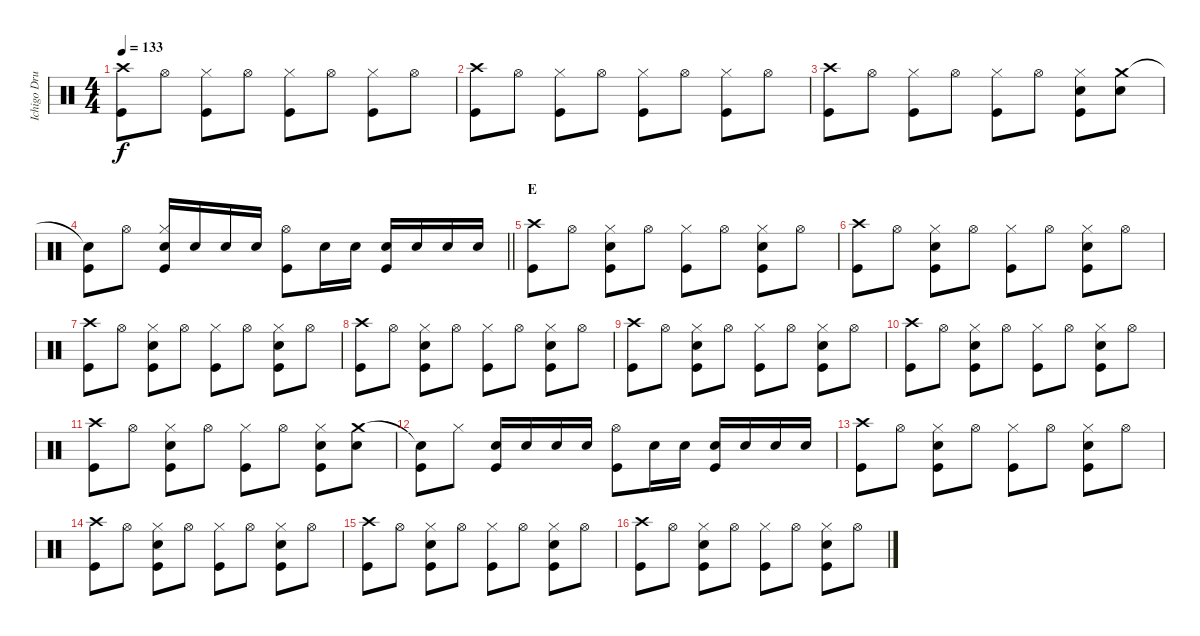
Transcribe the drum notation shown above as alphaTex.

\track ("Ichigo Drums" "Ichigo Dru") {instrument percussion}
\staff {score}
\articulation defaults
\ts (4 4)
\tempo 133
\clef neutral
\ks c
("Crash high (hit)" "Kick (hit)").8{dy f} "Hi-Hat (open)".8 ("Hi-Hat (closed)" "Kick (hit)").8 "Hi-Hat (open)".8 ("Hi-Hat (closed)" "Kick (hit)").8 "Hi-Hat (open)".8 ("Hi-Hat (closed)" "Kick (hit)").8 "Hi-Hat (open)".8 |
("Crash high (hit)" "Kick (hit)").8 "Hi-Hat (open)".8 ("Hi-Hat (closed)" "Kick (hit)").8 "Hi-Hat (open)".8 ("Hi-Hat (closed)" "Kick (hit)").8 "Hi-Hat (open)".8 ("Hi-Hat (closed)" "Kick (hit)").8 "Hi-Hat (open)".8 |
("Crash high (hit)" "Kick (hit)").8 "Hi-Hat (open)".8 ("Hi-Hat (closed)" "Kick (hit)").8 "Hi-Hat (open)".8 ("Hi-Hat (closed)" "Kick (hit)").8 "Hi-Hat (open)".8 ("Hi-Hat (closed)" "Snare (hit) 2" "Kick (hit)").8 ("Crash medium (hit)" "Snare (hit) 2").8 |
\barLineRight lightlight
("Snare (hit)"{t} "Kick (hit)").8 "Hi-Hat (open)".8 ("Hi-Hat (closed)" "Snare (hit) 2" "Kick (hit)").16 "Snare (hit) 2".16 "Snare (hit) 2".16 "Snare (hit) 2".16 ("Hi-Hat (open)" "Kick (hit)").8 "Snare (hit) 2".16 "Snare (hit) 2".16 ("Snare (hit) 2" "Kick (hit)").16 "Snare (hit) 2".16 "Snare (hit) 2".16 "Snare (hit) 2".16 |
\section ("" "E")
("Crash high (hit)" "Kick (hit)").8 "Hi-Hat (open)".8 ("Hi-Hat (closed)" "Snare (hit) 2" "Kick (hit)").8 "Hi-Hat (open)".8 ("Hi-Hat (closed)" "Kick (hit)").8 "Hi-Hat (open)".8 ("Hi-Hat (closed)" "Snare (hit) 2" "Kick (hit)").8 "Hi-Hat (open)".8 |
("Crash high (hit)" "Kick (hit)").8 "Hi-Hat (open)".8 ("Hi-Hat (closed)" "Snare (hit) 2" "Kick (hit)").8 "Hi-Hat (open)".8 ("Hi-Hat (closed)" "Kick (hit)").8 "Hi-Hat (open)".8 ("Hi-Hat (closed)" "Snare (hit) 2" "Kick (hit)").8 "Hi-Hat (open)".8 |
("Crash high (hit)" "Kick (hit)").8 "Hi-Hat (open)".8 ("Hi-Hat (closed)" "Snare (hit) 2" "Kick (hit)").8 "Hi-Hat (open)".8 ("Hi-Hat (closed)" "Kick (hit)").8 "Hi-Hat (open)".8 ("Hi-Hat (closed)" "Snare (hit) 2" "Kick (hit)").8 "Hi-Hat (open)".8 |
("Crash high (hit)" "Kick (hit)").8 "Hi-Hat (open)".8 ("Hi-Hat (closed)" "Snare (hit) 2" "Kick (hit)").8 "Hi-Hat (open)".8 ("Hi-Hat (closed)" "Kick (hit)").8 "Hi-Hat (open)".8 ("Hi-Hat (closed)" "Snare (hit) 2" "Kick (hit)").8 "Hi-Hat (open)".8 |
("Crash high (hit)" "Kick (hit)").8 "Hi-Hat (open)".8 ("Hi-Hat (closed)" "Snare (hit) 2" "Kick (hit)").8 "Hi-Hat (open)".8 ("Hi-Hat (closed)" "Kick (hit)").8 "Hi-Hat (open)".8 ("Hi-Hat (closed)" "Snare (hit) 2" "Kick (hit)").8 "Hi-Hat (open)".8 |
("Crash high (hit)" "Kick (hit)").8 "Hi-Hat (open)".8 ("Hi-Hat (closed)" "Snare (hit) 2" "Kick (hit)").8 "Hi-Hat (open)".8 ("Hi-Hat (closed)" "Kick (hit)").8 "Hi-Hat (open)".8 ("Hi-Hat (closed)" "Snare (hit) 2" "Kick (hit)").8 "Hi-Hat (open)".8 |
("Crash high (hit)" "Kick (hit)").8 "Hi-Hat (open)".8 ("Hi-Hat (closed)" "Snare (hit) 2" "Kick (hit)").8 "Hi-Hat (open)".8 ("Hi-Hat (closed)" "Kick (hit)").8 "Hi-Hat (open)".8 ("Hi-Hat (closed)" "Snare (hit) 2" "Kick (hit)").8 ("Crash medium (hit)" "Snare (hit) 2").8 |
("Snare (hit)"{t} "Kick (hit)").8 "Hi-Hat (closed)".8 ("Snare (hit) 2" "Kick (hit)").16 "Snare (hit) 2".16 "Snare (hit) 2".16 "Snare (hit) 2".16 ("Hi-Hat (open)" "Kick (hit)").8 "Snare (hit) 2".16 "Snare (hit) 2".16 ("Snare (hit) 2" "Kick (hit)").16 "Snare (hit) 2".16 "Snare (hit) 2".16 "Snare (hit) 2".16 |
("Crash high (hit)" "Kick (hit)").8 "Hi-Hat (open)".8 ("Hi-Hat (closed)" "Snare (hit) 2" "Kick (hit)").8 "Hi-Hat (open)".8 ("Hi-Hat (closed)" "Kick (hit)").8 "Hi-Hat (open)".8 ("Hi-Hat (closed)" "Snare (hit) 2" "Kick (hit)").8 "Hi-Hat (open)".8 |
("Crash high (hit)" "Kick (hit)").8 "Hi-Hat (open)".8 ("Hi-Hat (closed)" "Snare (hit) 2" "Kick (hit)").8 "Hi-Hat (open)".8 ("Hi-Hat (closed)" "Kick (hit)").8 "Hi-Hat (open)".8 ("Hi-Hat (closed)" "Snare (hit) 2" "Kick (hit)").8 "Hi-Hat (open)".8 |
("Crash high (hit)" "Kick (hit)").8 "Hi-Hat (open)".8 ("Hi-Hat (closed)" "Snare (hit) 2" "Kick (hit)").8 "Hi-Hat (open)".8 ("Hi-Hat (closed)" "Kick (hit)").8 "Hi-Hat (open)".8 ("Hi-Hat (closed)" "Snare (hit) 2" "Kick (hit)").8 "Hi-Hat (open)".8 |
("Crash high (hit)" "Kick (hit)").8 "Hi-Hat (open)".8 ("Hi-Hat (closed)" "Snare (hit) 2" "Kick (hit)").8 "Hi-Hat (open)".8 ("Hi-Hat (closed)" "Kick (hit)").8 "Hi-Hat (open)".8 ("Hi-Hat (closed)" "Snare (hit) 2" "Kick (hit)").8 "Hi-Hat (open)".8
